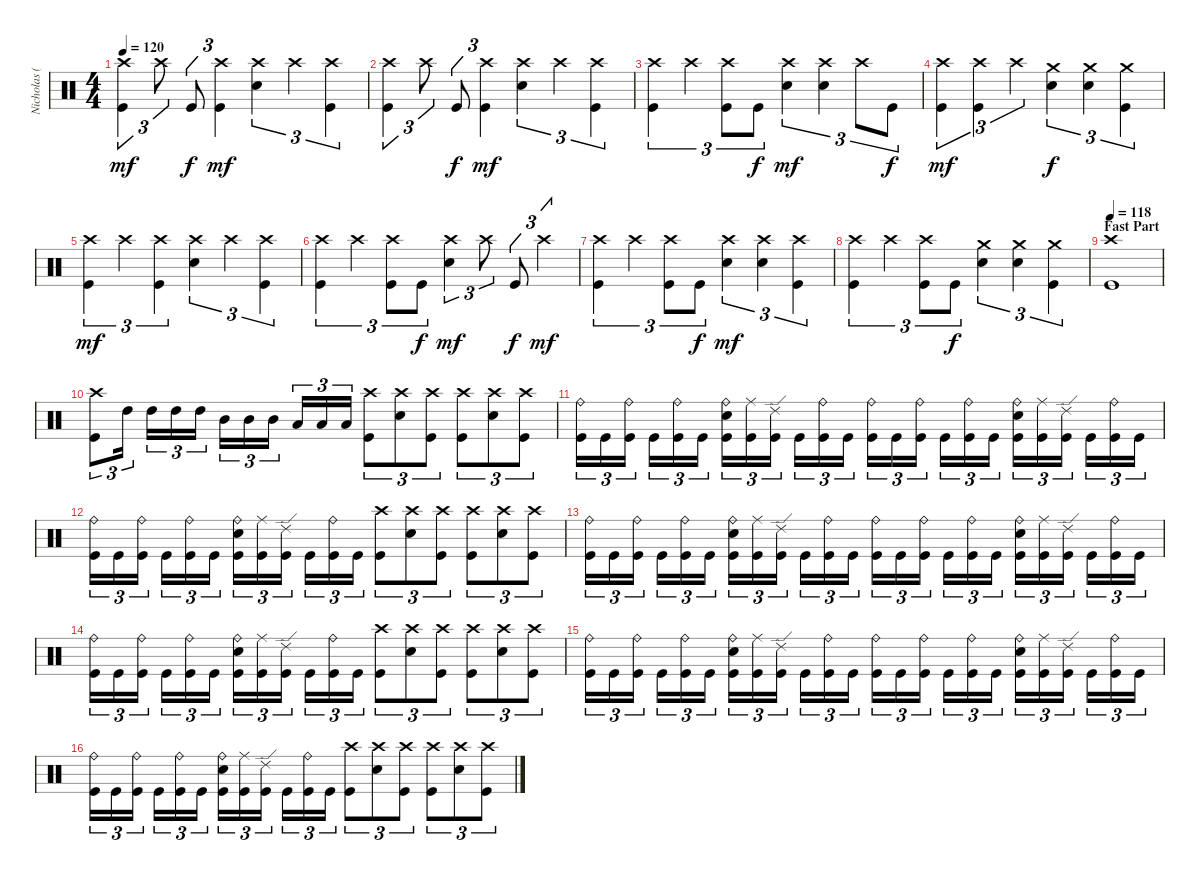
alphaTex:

\track ("Nicholas (Drums)" "Nicholas (") {instrument percussion}
\staff {score}
\articulation defaults
\ts (4 4)
\tempo 120
\clef neutral
\ks c
("Crash high (hit)" "Kick (hit)").4{tu (3 2) dy mf} "Crash high (hit)".8{tu (3 2)} "Kick (hit)".8{tu (3 2) dy f} ("Crash high (hit)" "Kick (hit)").4{tu (3 2) dy mf} ("Crash high (hit)" "Electric Snare (hit)").4{tu (3 2)} "Crash high (hit)".4{tu (3 2)} ("Crash high (hit)" "Kick (hit)").4{tu (3 2)} |
("Crash high (hit)" "Kick (hit)").4{tu (3 2)} "Crash high (hit)".8{tu (3 2)} "Kick (hit)".8{tu (3 2) dy f} ("Crash high (hit)" "Kick (hit)").4{tu (3 2) dy mf} ("Crash high (hit)" "Electric Snare (hit)").4{tu (3 2)} "Crash high (hit)".4{tu (3 2)} ("Crash high (hit)" "Kick (hit)").4{tu (3 2)} |
("Crash high (hit)" "Kick (hit)").4{tu (3 2)} "Crash high (hit)".4{tu (3 2)} ("Crash high (hit)" "Kick (hit)").8{tu (3 2)} "Kick (hit)".8{tu (3 2) dy f} ("Crash high (hit)" "Electric Snare (hit)").4{tu (3 2) dy mf} ("Crash high (hit)" "Electric Snare (hit)").4{tu (3 2)} "Crash high (hit)".8{tu (3 2)} "Kick (hit)".8{tu (3 2) dy f} |
("Crash high (hit)" "Kick (hit)").4{tu (3 2) dy mf} ("Crash high (hit)" "Kick (hit)").4{tu (3 2)} "Crash high (hit)".4{tu (3 2)} ("Crash medium (hit)" "Electric Snare (hit)").4{tu (3 2) dy f} ("Crash medium (hit)" "Electric Snare (hit)").4{tu (3 2)} ("Crash medium (hit)" "Kick (hit)").4{tu (3 2)} |
("Crash high (hit)" "Kick (hit)").4{tu (3 2) dy mf} "Crash high (hit)".4{tu (3 2)} ("Crash high (hit)" "Kick (hit)").4{tu (3 2)} ("Crash high (hit)" "Electric Snare (hit)").4{tu (3 2)} "Crash high (hit)".4{tu (3 2)} ("Crash high (hit)" "Kick (hit)").4{tu (3 2)} |
("Crash high (hit)" "Kick (hit)").4{tu (3 2)} "Crash high (hit)".4{tu (3 2)} ("Crash high (hit)" "Kick (hit)").8{tu (3 2)} "Kick (hit)".8{tu (3 2) dy f} ("Crash high (hit)" "Electric Snare (hit)").4{tu (3 2) dy mf} "Crash high (hit)".8{tu (3 2)} "Kick (hit)".8{tu (3 2) dy f} "Crash high (hit)".4{tu (3 2) dy mf} |
("Crash high (hit)" "Kick (hit)").4{tu (3 2)} "Crash high (hit)".4{tu (3 2)} ("Crash high (hit)" "Kick (hit)").8{tu (3 2)} "Kick (hit)".8{tu (3 2) dy f} ("Crash high (hit)" "Electric Snare (hit)").4{tu (3 2) dy mf} ("Crash high (hit)" "Electric Snare (hit)").4{tu (3 2)} ("Crash high (hit)" "Kick (hit)").4{tu (3 2)} |
("Crash high (hit)" "Kick (hit)").4{tu (3 2)} "Crash high (hit)".4{tu (3 2)} ("Crash high (hit)" "Kick (hit)").8{tu (3 2)} "Kick (hit)".8{tu (3 2) dy f} ("Crash medium (hit)" "Electric Snare (hit)").4{tu (3 2)} ("Crash medium (hit)" "Electric Snare (hit)").4{tu (3 2)} ("Crash medium (hit)" "Kick (hit)").4{tu (3 2)} |
\section ("" "Fast Part")
\tempo 118
("Crash high (hit)" "Kick (hit)").1 |
("Crash high (hit)" "Kick (hit)").8{tu (3 2)} "High Tom (hit)".16{tu (3 2)} "High Tom (hit)".16{tu (3 2)} "High Tom (hit)".16{tu (3 2)} "High Tom (hit)".16{tu (3 2)} "Mid Tom (hit)".16{tu (3 2)} "Mid Tom (hit)".16{tu (3 2)} "Mid Tom (hit)".16{tu (3 2)} "Low Tom (hit)".16{tu (3 2)} "Low Tom (hit)".16{tu (3 2)} "Low Tom (hit)".16{tu (3 2)} ("Crash high (hit)" "Kick (hit)").8{tu (3 2)} ("Crash high (hit)" "Electric Snare (hit)").8{tu (3 2)} ("Crash high (hit)" "Kick (hit)").8{tu (3 2)} ("Crash high (hit)" "Kick (hit)").8{tu (3 2)} ("Crash high (hit)" "Electric Snare (hit)").8{tu (3 2)} ("Crash high (hit)" "Kick (hit)").8{tu (3 2)} |
("Ride (bell)" "Kick (hit)").16{tu (3 2)} "Kick (hit)".16{tu (3 2)} ("Ride (bell)" "Kick (hit)").16{tu (3 2)} "Kick (hit)".16{tu (3 2)} ("Ride (bell)" "Kick (hit)").16{tu (3 2)} "Kick (hit)".16{tu (3 2)} ("Ride (bell)" "Electric Snare (hit)" "Kick (hit)").16{tu (3 2)} ("Ride (middle)" "Kick (hit)").16{tu (3 2)} ("Ride (edge) 2" "Kick (hit)").16{tu (3 2)} "Kick (hit)".16{tu (3 2)} ("Ride (bell)" "Kick (hit)").16{tu (3 2)} "Kick (hit)".16{tu (3 2)} ("Ride (bell)" "Kick (hit)").16{tu (3 2)} "Kick (hit)".16{tu (3 2)} ("Ride (bell)" "Kick (hit)").16{tu (3 2)} "Kick (hit)".16{tu (3 2)} ("Ride (bell)" "Kick (hit)").16{tu (3 2)} "Kick (hit)".16{tu (3 2)} ("Ride (bell)" "Electric Snare (hit)" "Kick (hit)").16{tu (3 2)} ("Ride (middle)" "Kick (hit)").16{tu (3 2)} ("Ride (edge) 2" "Kick (hit)").16{tu (3 2)} "Kick (hit)".16{tu (3 2)} ("Ride (bell)" "Kick (hit)").16{tu (3 2)} "Kick (hit)".16{tu (3 2)} |
("Ride (bell)" "Kick (hit)").16{tu (3 2)} "Kick (hit)".16{tu (3 2)} ("Ride (bell)" "Kick (hit)").16{tu (3 2)} "Kick (hit)".16{tu (3 2)} ("Ride (bell)" "Kick (hit)").16{tu (3 2)} "Kick (hit)".16{tu (3 2)} ("Ride (bell)" "Electric Snare (hit)" "Kick (hit)").16{tu (3 2)} ("Ride (middle)" "Kick (hit)").16{tu (3 2)} ("Ride (edge) 2" "Kick (hit)").16{tu (3 2)} "Kick (hit)".16{tu (3 2)} ("Ride (bell)" "Kick (hit)").16{tu (3 2)} "Kick (hit)".16{tu (3 2)} ("Crash high (hit)" "Kick (hit)").8{tu (3 2)} ("Crash high (hit)" "Electric Snare (hit)").8{tu (3 2)} ("Crash high (hit)" "Kick (hit)").8{tu (3 2)} ("Crash high (hit)" "Kick (hit)").8{tu (3 2)} ("Crash high (hit)" "Electric Snare (hit)").8{tu (3 2)} ("Crash high (hit)" "Kick (hit)").8{tu (3 2)} |
("Ride (bell)" "Kick (hit)").16{tu (3 2)} "Kick (hit)".16{tu (3 2)} ("Ride (bell)" "Kick (hit)").16{tu (3 2)} "Kick (hit)".16{tu (3 2)} ("Ride (bell)" "Kick (hit)").16{tu (3 2)} "Kick (hit)".16{tu (3 2)} ("Ride (bell)" "Electric Snare (hit)" "Kick (hit)").16{tu (3 2)} ("Ride (middle)" "Kick (hit)").16{tu (3 2)} ("Ride (edge) 2" "Kick (hit)").16{tu (3 2)} "Kick (hit)".16{tu (3 2)} ("Ride (bell)" "Kick (hit)").16{tu (3 2)} "Kick (hit)".16{tu (3 2)} ("Ride (bell)" "Kick (hit)").16{tu (3 2)} "Kick (hit)".16{tu (3 2)} ("Ride (bell)" "Kick (hit)").16{tu (3 2)} "Kick (hit)".16{tu (3 2)} ("Ride (bell)" "Kick (hit)").16{tu (3 2)} "Kick (hit)".16{tu (3 2)} ("Ride (bell)" "Electric Snare (hit)" "Kick (hit)").16{tu (3 2)} ("Ride (middle)" "Kick (hit)").16{tu (3 2)} ("Ride (edge) 2" "Kick (hit)").16{tu (3 2)} "Kick (hit)".16{tu (3 2)} ("Ride (bell)" "Kick (hit)").16{tu (3 2)} "Kick (hit)".16{tu (3 2)} |
("Ride (bell)" "Kick (hit)").16{tu (3 2)} "Kick (hit)".16{tu (3 2)} ("Ride (bell)" "Kick (hit)").16{tu (3 2)} "Kick (hit)".16{tu (3 2)} ("Ride (bell)" "Kick (hit)").16{tu (3 2)} "Kick (hit)".16{tu (3 2)} ("Ride (bell)" "Electric Snare (hit)" "Kick (hit)").16{tu (3 2)} ("Ride (middle)" "Kick (hit)").16{tu (3 2)} ("Ride (edge) 2" "Kick (hit)").16{tu (3 2)} "Kick (hit)".16{tu (3 2)} ("Ride (bell)" "Kick (hit)").16{tu (3 2)} "Kick (hit)".16{tu (3 2)} ("Crash high (hit)" "Kick (hit)").8{tu (3 2)} ("Crash high (hit)" "Electric Snare (hit)").8{tu (3 2)} ("Crash high (hit)" "Kick (hit)").8{tu (3 2)} ("Crash high (hit)" "Kick (hit)").8{tu (3 2)} ("Crash high (hit)" "Electric Snare (hit)").8{tu (3 2)} ("Crash high (hit)" "Kick (hit)").8{tu (3 2)} |
("Ride (bell)" "Kick (hit)").16{tu (3 2)} "Kick (hit)".16{tu (3 2)} ("Ride (bell)" "Kick (hit)").16{tu (3 2)} "Kick (hit)".16{tu (3 2)} ("Ride (bell)" "Kick (hit)").16{tu (3 2)} "Kick (hit)".16{tu (3 2)} ("Ride (bell)" "Electric Snare (hit)" "Kick (hit)").16{tu (3 2)} ("Ride (middle)" "Kick (hit)").16{tu (3 2)} ("Ride (edge) 2" "Kick (hit)").16{tu (3 2)} "Kick (hit)".16{tu (3 2)} ("Ride (bell)" "Kick (hit)").16{tu (3 2)} "Kick (hit)".16{tu (3 2)} ("Ride (bell)" "Kick (hit)").16{tu (3 2)} "Kick (hit)".16{tu (3 2)} ("Ride (bell)" "Kick (hit)").16{tu (3 2)} "Kick (hit)".16{tu (3 2)} ("Ride (bell)" "Kick (hit)").16{tu (3 2)} "Kick (hit)".16{tu (3 2)} ("Ride (bell)" "Electric Snare (hit)" "Kick (hit)").16{tu (3 2)} ("Ride (middle)" "Kick (hit)").16{tu (3 2)} ("Ride (edge) 2" "Kick (hit)").16{tu (3 2)} "Kick (hit)".16{tu (3 2)} ("Ride (bell)" "Kick (hit)").16{tu (3 2)} "Kick (hit)".16{tu (3 2)} |
("Ride (bell)" "Kick (hit)").16{tu (3 2)} "Kick (hit)".16{tu (3 2)} ("Ride (bell)" "Kick (hit)").16{tu (3 2)} "Kick (hit)".16{tu (3 2)} ("Ride (bell)" "Kick (hit)").16{tu (3 2)} "Kick (hit)".16{tu (3 2)} ("Ride (bell)" "Electric Snare (hit)" "Kick (hit)").16{tu (3 2)} ("Ride (middle)" "Kick (hit)").16{tu (3 2)} ("Ride (edge) 2" "Kick (hit)").16{tu (3 2)} "Kick (hit)".16{tu (3 2)} ("Ride (bell)" "Kick (hit)").16{tu (3 2)} "Kick (hit)".16{tu (3 2)} ("Crash high (hit)" "Kick (hit)").8{tu (3 2)} ("Crash high (hit)" "Electric Snare (hit)").8{tu (3 2)} ("Crash high (hit)" "Kick (hit)").8{tu (3 2)} ("Crash high (hit)" "Kick (hit)").8{tu (3 2)} ("Crash high (hit)" "Electric Snare (hit)").8{tu (3 2)} ("Crash high (hit)" "Kick (hit)").8{tu (3 2)}
